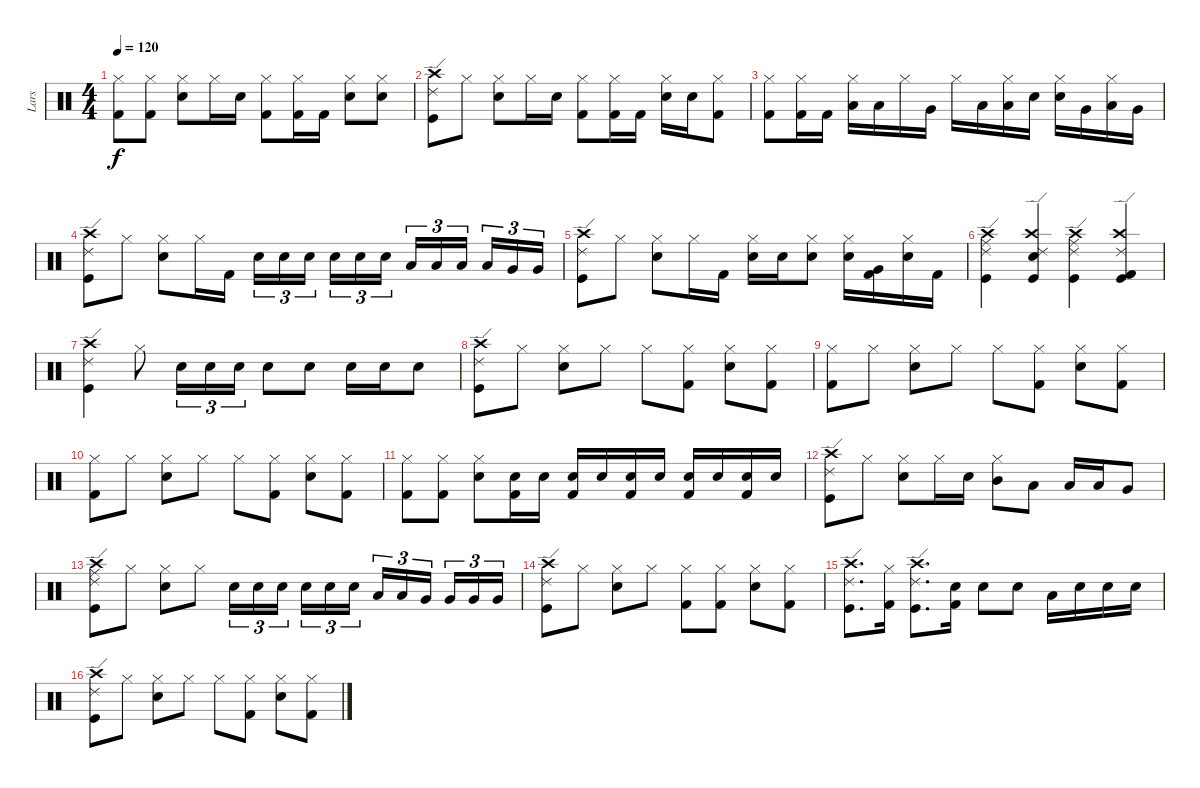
\track ("Lars" "Lars") {instrument percussion}
\staff
\articulation defaults
\ts (4 4)
\tempo 120
\clef neutral
\ks c
("Kick (hit) 2" "Hi-Hat (closed)").8{dy f} ("Kick (hit) 2" "Hi-Hat (closed)").8 ("Snare (hit) 2" "Hi-Hat (closed)").8 "Hi-Hat (closed)".16 "Snare (hit) 2".16 ("Kick (hit) 2" "Hi-Hat (closed)").8 ("Kick (hit) 2" "Hi-Hat (closed)").16 "Kick (hit) 2".16 ("Snare (hit) 2" "Hi-Hat (closed)").8 ("Snare (hit) 2" "Hi-Hat (closed)").8 |
("Crash high (hit)" "Ride (edge) 2" "Kick (hit)").8 "Hi-Hat (closed)".8 ("Snare (hit) 2" "Hi-Hat (closed)").8 "Hi-Hat (closed)".16 "Snare (hit) 2".16 ("Kick (hit) 2" "Hi-Hat (closed)").8 ("Kick (hit) 2" "Hi-Hat (closed)").16 "Kick (hit) 2".16 ("Snare (hit) 2" "Hi-Hat (closed)").16 "Snare (hit) 2".16 ("Kick (hit) 2" "Hi-Hat (closed)").8 |
("Kick (hit) 2" "Hi-Hat (closed)").8 ("Kick (hit) 2" "Hi-Hat (closed)").16 "Kick (hit) 2".16 ("Low Tom (hit)" "Hi-Hat (closed)").16 "Low Tom (hit)".16 "Hi-Hat (closed)".16 "Very Low Tom (hit)".16 "Hi-Hat (closed)".16 "Low Tom (hit)".16 ("Low Tom (hit)" "Hi-Hat (closed)").16 "Snare (hit) 2".16 ("Snare (hit) 2" "Hi-Hat (closed)").16 "Very Low Tom (hit)".16 ("Low Tom (hit)" "Hi-Hat (closed)").16 "Very Low Tom (hit)".16 |
("Crash high (hit)" "Ride (edge) 2" "Kick (hit)").8 "Hi-Hat (closed)".8 ("Snare (hit) 2" "Hi-Hat (closed)").8 "Hi-Hat (closed)".16 "Kick (hit) 2".16 "Snare (hit) 2".16{tu (3 2)} "Snare (hit) 2".16{tu (3 2)} "Snare (hit) 2".16{tu (3 2) beam splitsecondary} "Snare (hit) 2".16{tu (3 2)} "Snare (hit) 2".16{tu (3 2)} "Snare (hit) 2".16{tu (3 2)} "Low Tom (hit)".16{tu (3 2)} "Low Tom (hit)".16{tu (3 2)} "Low Tom (hit)".16{tu (3 2) beam splitsecondary} "Low Tom (hit)".16{tu (3 2)} "Very Low Tom (hit)".16{tu (3 2)} "Very Low Tom (hit)".16{tu (3 2)} |
("Crash high (hit)" "Ride (edge) 2" "Kick (hit)").8 "Hi-Hat (closed)".8 ("Snare (hit) 2" "Hi-Hat (closed)").8 "Hi-Hat (closed)".16 "Kick (hit) 2".16 ("Snare (hit) 2" "Hi-Hat (closed)").16 "Snare (hit) 2".16 ("Snare (hit) 2" "Hi-Hat (closed)").8 ("Snare (hit) 2" "Hi-Hat (closed)").16 ("Very Low Tom (hit)" "Kick (hit) 2").16 ("Snare (hit) 2" "Hi-Hat (closed)").16 "Kick (hit) 2".16 |
("Ride (middle)" "Crash high (hit)" "Ride (edge) 2" "Kick (hit)").4 ("Snare (hit) 2" "Crash high (hit)" "Ride (edge) 2" "Kick (hit)").4 ("Ride (middle)" "Crash high (hit)" "Ride (edge) 2" "Kick (hit)").4 ("Kick (hit) 2" "Crash high (hit)" "Ride (edge) 2" "Kick (hit)").4 |
("Crash high (hit)" "Ride (edge) 2" "Kick (hit)").4 "Hi-Hat (closed)".8 "Snare (hit) 2".16{tu (3 2)} "Snare (hit) 2".16{tu (3 2)} "Snare (hit) 2".16{tu (3 2)} "Snare (hit) 2".8 "Snare (hit) 2".8 "Snare (hit) 2".16 "Snare (hit) 2".16 "Snare (hit) 2".8 |
("Crash high (hit)" "Ride (edge) 2" "Kick (hit)").8 "Hi-Hat (closed)".8 ("Snare (hit) 2" "Hi-Hat (closed)").8 "Hi-Hat (closed)".8 "Hi-Hat (closed)".8 ("Kick (hit) 2" "Hi-Hat (closed)").8 ("Snare (hit) 2" "Hi-Hat (closed)").8 ("Kick (hit) 2" "Hi-Hat (closed)").8 |
("Kick (hit) 2" "Hi-Hat (closed)").8 "Hi-Hat (closed)".8 ("Snare (hit) 2" "Hi-Hat (closed)").8 "Hi-Hat (closed)".8 "Hi-Hat (closed)".8 ("Kick (hit) 2" "Hi-Hat (closed)").8 ("Snare (hit) 2" "Hi-Hat (closed)").8 ("Kick (hit) 2" "Hi-Hat (closed)").8 |
("Kick (hit) 2" "Hi-Hat (closed)").8 "Hi-Hat (closed)".8 ("Snare (hit) 2" "Hi-Hat (closed)").8 "Hi-Hat (closed)".8 "Hi-Hat (closed)".8 ("Kick (hit) 2" "Hi-Hat (closed)").8 ("Snare (hit) 2" "Hi-Hat (closed)").8 ("Kick (hit) 2" "Hi-Hat (closed)").8 |
("Kick (hit) 2" "Hi-Hat (closed)").8 ("Kick (hit) 2" "Hi-Hat (closed)").8 ("Snare (hit) 2" "Hi-Hat (closed)").8 ("Snare (hit) 2" "Kick (hit) 2").16 "Snare (hit) 2".16 ("Snare (hit) 2" "Kick (hit) 2").16 "Snare (hit) 2".16 ("Snare (hit) 2" "Kick (hit) 2").16 "Snare (hit) 2".16 ("Snare (hit) 2" "Kick (hit) 2").16 "Snare (hit) 2".16 ("Snare (hit) 2" "Kick (hit) 2").16 "Snare (hit) 2".16 |
("Crash high (hit)" "Ride (edge) 2" "Kick (hit)").8 "Hi-Hat (closed)".8 ("Snare (hit) 2" "Hi-Hat (closed)").8 "Hi-Hat (closed)".16 "Snare (hit) 2".16 ("Mid Tom (hit)" "Hi-Hat (closed)").8 "Low Tom (hit)".8 "Low Tom (hit)".16 "Low Tom (hit)".16 "Very Low Tom (hit)".8 |
("Ride (middle)" "Crash high (hit)" "Ride (edge) 2" "Kick (hit)").8 "Hi-Hat (closed)".8 ("Snare (hit) 2" "Hi-Hat (closed)").8 "Hi-Hat (closed)".8 "Snare (hit) 2".16{tu (3 2)} "Snare (hit) 2".16{tu (3 2)} "Snare (hit) 2".16{tu (3 2) beam splitsecondary} "Snare (hit) 2".16{tu (3 2)} "Snare (hit) 2".16{tu (3 2)} "Snare (hit) 2".16{tu (3 2)} "Low Tom (hit)".16{tu (3 2)} "Low Tom (hit)".16{tu (3 2)} "Very Low Tom (hit)".16{tu (3 2) beam splitsecondary} "Very Low Tom (hit)".16{tu (3 2)} "Very Low Tom (hit)".16{tu (3 2)} "Very Low Tom (hit)".16{tu (3 2)} |
("Crash high (hit)" "Ride (edge) 2" "Kick (hit)").8 "Hi-Hat (closed)".8 ("Snare (hit) 2" "Hi-Hat (closed)").8 "Hi-Hat (closed)".8 ("Kick (hit) 2" "Hi-Hat (closed)").8 ("Kick (hit) 2" "Hi-Hat (closed)").8 ("Snare (hit) 2" "Hi-Hat (closed)").8 ("Kick (hit) 2" "Hi-Hat (closed)").8 |
("Crash high (hit)" "Ride (edge) 2" "Kick (hit)").8{d} ("Kick (hit) 2" "Hi-Hat (closed)").16 ("Crash high (hit)" "Ride (edge) 2" "Kick (hit)").8{d} ("Kick (hit) 2" "Snare (hit) 2").16 "Snare (hit) 2".8 "Snare (hit) 2".8 "Low Tom (hit)".16 "Snare (hit) 2".16 "Snare (hit) 2".16 "Snare (hit) 2".16 |
("Crash high (hit)" "Ride (edge) 2" "Kick (hit)").8 "Hi-Hat (closed)".8 ("Snare (hit) 2" "Hi-Hat (closed)").8 "Hi-Hat (closed)".8 "Hi-Hat (closed)".8 ("Kick (hit) 2" "Hi-Hat (closed)").8 ("Snare (hit) 2" "Hi-Hat (closed)").8 ("Kick (hit) 2" "Hi-Hat (closed)").8
